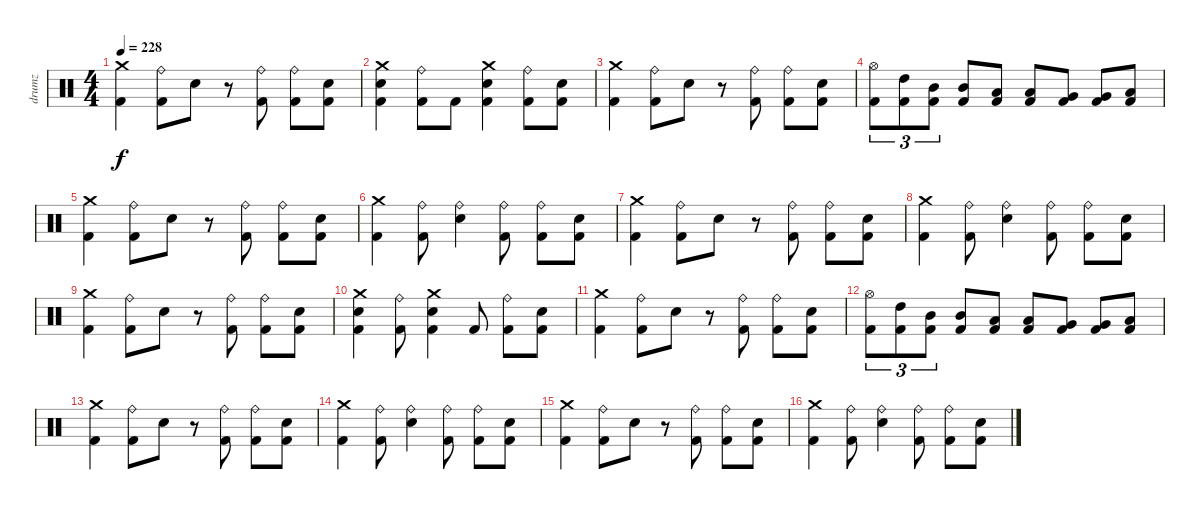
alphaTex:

\track ("drumz" "drumz") {instrument percussion}
\staff {score}
\articulation defaults
\ts (4 4)
\tempo 228
\clef neutral
\ks c
("Crash medium (hit)" "Kick (hit) 2").4{dy f} ("Ride (bell)" "Kick (hit) 2").8 "Snare (hit) 2".8 r.8 ("Ride (bell)" "Kick (hit) 2").8 ("Ride (bell)" "Kick (hit) 2").8 ("Snare (hit) 2" "Kick (hit) 2").8 |
("Crash medium (hit)" "Snare (hit) 2" "Kick (hit) 2").4 ("Ride (bell)" "Kick (hit) 2").8 "Kick (hit) 2".8 ("Crash medium (hit)" "Snare (hit) 2" "Kick (hit) 2").4 ("Ride (bell)" "Kick (hit) 2").8 ("Snare (hit) 2" "Kick (hit) 2").8 |
("Crash medium (hit)" "Kick (hit) 2").4 ("Ride (bell)" "Kick (hit) 2").8 "Snare (hit) 2".8 r.8 ("Ride (bell)" "Kick (hit) 2").8 ("Ride (bell)" "Kick (hit) 2").8 ("Snare (hit) 2" "Kick (hit) 2").8 |
("Hi-Hat (open)" "Kick (hit) 2").8{tu (3 2)} ("High Tom (hit)" "Kick (hit) 2").8{tu (3 2)} ("Mid Tom (hit)" "Kick (hit) 2").8{tu (3 2)} ("Mid Tom (hit)" "Kick (hit) 2").8 ("Low Tom (hit)" "Kick (hit) 2").8 ("Low Tom (hit)" "Kick (hit) 2").8 ("Very Low Tom (hit)" "Kick (hit) 2").8 ("Very Low Tom (hit)" "Kick (hit) 2").8 ("Low Floor Tom (hit)" "Kick (hit) 2").8 |
("Crash medium (hit)" "Kick (hit) 2").4 ("Ride (bell)" "Kick (hit) 2").8 "Snare (hit) 2".8 r.8 ("Ride (bell)" "Kick (hit) 2").8 ("Ride (bell)" "Kick (hit) 2").8 ("Snare (hit) 2" "Kick (hit) 2").8 |
("Crash medium (hit)" "Kick (hit) 2").4 ("Ride (bell)" "Kick (hit) 2").8 ("Ride (bell)" "Snare (hit) 2").4 ("Ride (bell)" "Kick (hit) 2").8 ("Ride (bell)" "Kick (hit) 2").8 ("Snare (hit) 2" "Kick (hit) 2").8 |
("Crash medium (hit)" "Kick (hit) 2").4 ("Ride (bell)" "Kick (hit) 2").8 "Snare (hit) 2".8 r.8 ("Ride (bell)" "Kick (hit) 2").8 ("Ride (bell)" "Kick (hit) 2").8 ("Snare (hit) 2" "Kick (hit) 2").8 |
("Crash medium (hit)" "Kick (hit) 2").4 ("Ride (bell)" "Kick (hit) 2").8 ("Ride (bell)" "Snare (hit) 2").4 ("Ride (bell)" "Kick (hit) 2").8 ("Ride (bell)" "Kick (hit) 2").8 ("Snare (hit) 2" "Kick (hit) 2").8 |
("Crash medium (hit)" "Kick (hit) 2").4 ("Ride (bell)" "Kick (hit) 2").8 "Snare (hit) 2".8 r.8 ("Ride (bell)" "Kick (hit) 2").8 ("Ride (bell)" "Kick (hit) 2").8 ("Snare (hit) 2" "Kick (hit) 2").8 |
("Crash medium (hit)" "Snare (hit) 2" "Kick (hit) 2").4 ("Ride (bell)" "Kick (hit) 2").8 ("Crash medium (hit)" "Snare (hit) 2" "Kick (hit) 2").4 "Kick (hit) 2".8 ("Ride (bell)" "Kick (hit) 2").8 ("Snare (hit) 2" "Kick (hit) 2").8 |
("Crash medium (hit)" "Kick (hit) 2").4 ("Ride (bell)" "Kick (hit) 2").8 "Snare (hit) 2".8 r.8 ("Ride (bell)" "Kick (hit) 2").8 ("Ride (bell)" "Kick (hit) 2").8 ("Snare (hit) 2" "Kick (hit) 2").8 |
("Hi-Hat (open)" "Kick (hit) 2").8{tu (3 2)} ("High Tom (hit)" "Kick (hit) 2").8{tu (3 2)} ("Mid Tom (hit)" "Kick (hit) 2").8{tu (3 2)} ("Mid Tom (hit)" "Kick (hit) 2").8 ("Low Tom (hit)" "Kick (hit) 2").8 ("Low Tom (hit)" "Kick (hit) 2").8 ("Very Low Tom (hit)" "Kick (hit) 2").8 ("Very Low Tom (hit)" "Kick (hit) 2").8 ("Low Floor Tom (hit)" "Kick (hit) 2").8 |
("Crash medium (hit)" "Kick (hit) 2").4 ("Ride (bell)" "Kick (hit) 2").8 "Snare (hit) 2".8 r.8 ("Ride (bell)" "Kick (hit) 2").8 ("Ride (bell)" "Kick (hit) 2").8 ("Snare (hit) 2" "Kick (hit) 2").8 |
("Crash medium (hit)" "Kick (hit) 2").4 ("Ride (bell)" "Kick (hit) 2").8 ("Ride (bell)" "Snare (hit) 2").4 ("Ride (bell)" "Kick (hit) 2").8 ("Ride (bell)" "Kick (hit) 2").8 ("Snare (hit) 2" "Kick (hit) 2").8 |
("Crash medium (hit)" "Kick (hit) 2").4 ("Ride (bell)" "Kick (hit) 2").8 "Snare (hit) 2".8 r.8 ("Ride (bell)" "Kick (hit) 2").8 ("Ride (bell)" "Kick (hit) 2").8 ("Snare (hit) 2" "Kick (hit) 2").8 |
("Crash medium (hit)" "Kick (hit) 2").4 ("Ride (bell)" "Kick (hit) 2").8 ("Ride (bell)" "Snare (hit) 2").4 ("Ride (bell)" "Kick (hit) 2").8 ("Ride (bell)" "Kick (hit) 2").8 ("Snare (hit) 2" "Kick (hit) 2").8
